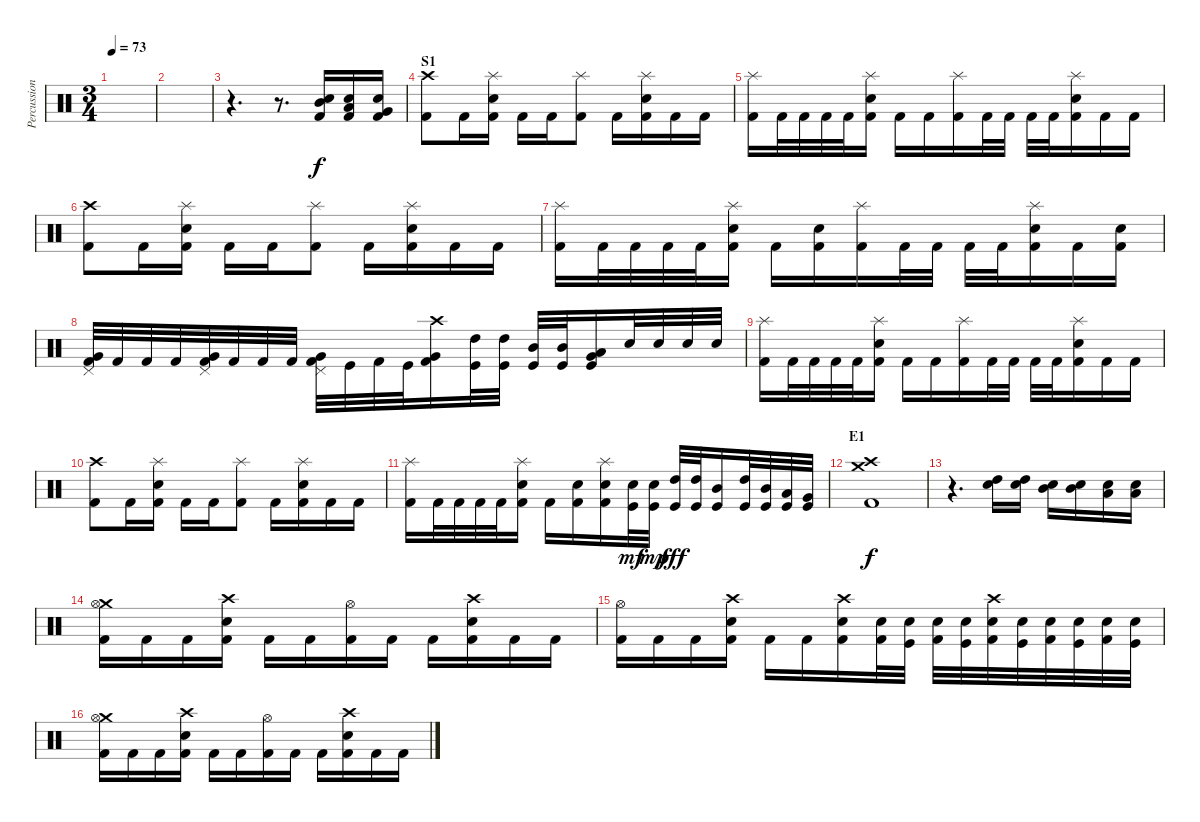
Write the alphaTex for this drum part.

\track ("Percussion" "Percussion") {instrument percussion}
\staff {score}
\articulation defaults
\ts (3 4)
\tempo 73
\clef neutral
\ks c
|
|
r.4{d} r.8{d} ("Electric Snare (hit)" "Mid Tom (hit)" "Kick (hit) 2").16 ("Electric Snare (hit)" "Low Tom (hit)" "Kick (hit) 2").16 ("Electric Snare (hit)" "Very Low Tom (hit)" "Kick (hit) 2").16 |
\section ("" "S1")
("Crash high (hit)" "Kick (hit) 2").8 "Kick (hit) 2".16 ("Splash (hit)" "Electric Snare (hit)" "Kick (hit) 2").16 "Kick (hit) 2".16 "Kick (hit) 2".16 ("Splash (hit)" "Kick (hit) 2").8 "Kick (hit) 2".16 ("Splash (hit)" "Electric Snare (hit)" "Kick (hit) 2").16 "Kick (hit) 2".16 "Kick (hit) 2".16 |
("Splash (hit)" "Kick (hit) 2").16 "Kick (hit) 2".32 "Kick (hit) 2".32 "Kick (hit) 2".32 "Kick (hit) 2".32 ("Splash (hit)" "Electric Snare (hit)" "Kick (hit) 2").16 "Kick (hit) 2".16 "Kick (hit) 2".16 ("Splash (hit)" "Kick (hit) 2").16 "Kick (hit) 2".32 "Kick (hit) 2".32 "Kick (hit) 2".32 "Kick (hit) 2".32 ("Splash (hit)" "Electric Snare (hit)" "Kick (hit) 2").16 "Kick (hit) 2".16 "Kick (hit) 2".16 |
("Crash high (hit)" "Kick (hit) 2").8 "Kick (hit) 2".16 ("Splash (hit)" "Electric Snare (hit)" "Kick (hit) 2").16 "Kick (hit) 2".16 "Kick (hit) 2".16 ("Splash (hit)" "Kick (hit) 2").8 "Kick (hit) 2".16 ("Splash (hit)" "Electric Snare (hit)" "Kick (hit) 2").16 "Kick (hit) 2".16 "Kick (hit) 2".16 |
("Splash (hit)" "Kick (hit) 2").16 "Kick (hit) 2".32 "Kick (hit) 2".32 "Kick (hit) 2".32 "Kick (hit) 2".32 ("Splash (hit)" "Electric Snare (hit)" "Kick (hit) 2").16 "Kick (hit) 2".16 ("Electric Snare (hit)" "Kick (hit) 2").16 ("Splash (hit)" "Kick (hit) 2").16 "Kick (hit) 2".32 "Kick (hit) 2".32 "Kick (hit) 2".32 "Kick (hit) 2".32 ("Splash (hit)" "Electric Snare (hit)" "Kick (hit) 2").16 "Kick (hit) 2".16 ("Electric Snare (hit)" "Kick (hit) 2").16 |
("Pedal Hi-Hat (hit)" "Very Low Tom (hit)" "Kick (hit) 2").32 "Kick (hit) 2".32 "Kick (hit) 2".32 "Kick (hit) 2".32 ("Pedal Hi-Hat (hit)" "Very Low Tom (hit)" "Kick (hit) 2").32 "Kick (hit) 2".32 "Kick (hit) 2".32 "Kick (hit) 2".32 ("Pedal Hi-Hat (hit)" "Very Low Tom (hit)" "Kick (hit) 2").32 "Kick (hit)".32 "Kick (hit) 2".32 "Kick (hit)".32 ("Crash high (hit)" "Very Low Tom (hit)" "Kick (hit) 2").16 ("High Tom (hit)" "Kick (hit)").32 ("High Tom (hit)" "Kick (hit)").32 ("Mid Tom (hit)" "Kick (hit)").32 ("Mid Tom (hit)" "Kick (hit)").32 ("Very Low Tom (hit)" "Low Tom (hit)" "Kick (hit)").16 "Electric Snare (hit)".32 "Electric Snare (hit)".32 "Electric Snare (hit)".32 "Electric Snare (hit)".32 |
("Splash (hit)" "Kick (hit) 2").16 "Kick (hit) 2".32 "Kick (hit) 2".32 "Kick (hit) 2".32 "Kick (hit) 2".32 ("Splash (hit)" "Electric Snare (hit)" "Kick (hit) 2").16 "Kick (hit) 2".16 "Kick (hit) 2".16 ("Splash (hit)" "Kick (hit) 2").16 "Kick (hit) 2".32 "Kick (hit) 2".32 "Kick (hit) 2".32 "Kick (hit) 2".32 ("Splash (hit)" "Electric Snare (hit)" "Kick (hit) 2").16 "Kick (hit) 2".16 "Kick (hit) 2".16 |
("Crash high (hit)" "Kick (hit) 2").8 "Kick (hit) 2".16 ("Splash (hit)" "Electric Snare (hit)" "Kick (hit) 2").16 "Kick (hit) 2".16 "Kick (hit) 2".16 ("Splash (hit)" "Kick (hit) 2").8 "Kick (hit) 2".16 ("Splash (hit)" "Electric Snare (hit)" "Kick (hit) 2").16 "Kick (hit) 2".16 "Kick (hit) 2".16 |
("Splash (hit)" "Kick (hit) 2").16 "Kick (hit) 2".32 "Kick (hit) 2".32 "Kick (hit) 2".32 "Kick (hit) 2".32 ("Splash (hit)" "Electric Snare (hit)" "Kick (hit) 2").16 "Kick (hit) 2".16 ("Electric Snare (hit)" "Kick (hit) 2").16 ("Splash (hit)" "Electric Snare (hit)" "Kick (hit) 2").16 ("Electric Snare (hit)" "Kick (hit)").32{dy mf} ("Electric Snare (hit)" "Kick (hit)").32{dy mp} ("High Tom (hit)" "Kick (hit)").32{dy fff} ("High Tom (hit)" "Kick (hit)").32 ("Mid Tom (hit)" "Kick (hit)").16 ("High Tom (hit)" "Kick (hit)").32 ("Mid Tom (hit)" "Kick (hit)").32 ("Low Tom (hit)" "Kick (hit)").32 ("Very Low Tom (hit)" "Kick (hit)").32 |
\section ("" "E1")
("Crash medium (hit)" "Crash high (hit)" "Kick (hit) 2").1{dy f} |
r.4{d} ("High Tom (hit)" "Electric Snare (hit)").16 ("High Tom (hit)" "Electric Snare (hit)").16 ("Mid Tom (hit)" "Electric Snare (hit)").16 ("Mid Tom (hit)" "Electric Snare (hit)").16 ("Low Tom (hit)" "Electric Snare (hit)").16 ("Low Tom (hit)" "Electric Snare (hit)").16 |
\section ("" "")
("Crash medium (hit)" "Hi-Hat (open)" "Kick (hit) 2").16 "Kick (hit) 2".16 "Kick (hit) 2".16 ("Crash high (hit)" "Electric Snare (hit)" "Kick (hit) 2").16 "Kick (hit) 2".16 "Kick (hit) 2".16 ("Hi-Hat (open)" "Kick (hit) 2").16 "Kick (hit) 2".16 "Kick (hit) 2".16 ("Crash high (hit)" "Electric Snare (hit)" "Kick (hit) 2").16 "Kick (hit) 2".16 "Kick (hit) 2".16 |
("Hi-Hat (open)" "Kick (hit) 2").16 "Kick (hit) 2".16 "Kick (hit) 2".16 ("Crash high (hit)" "Electric Snare (hit)" "Kick (hit) 2").16 "Kick (hit) 2".16 "Kick (hit) 2".16 ("Crash high (hit)" "Electric Snare (hit)" "Kick (hit) 2").16 ("Electric Snare (hit)" "Kick (hit) 2").32 ("Electric Snare (hit)" "Kick (hit)").32 ("Electric Snare (hit)" "Kick (hit) 2").32 ("Electric Snare (hit)" "Kick (hit)").32 ("Crash high (hit)" "Electric Snare (hit)" "Kick (hit) 2").32 ("Electric Snare (hit)" "Kick (hit)").32 ("Electric Snare (hit)" "Kick (hit) 2").32 ("Electric Snare (hit)" "Kick (hit)").32 ("Electric Snare (hit)" "Kick (hit) 2").32 ("Electric Snare (hit)" "Kick (hit)").32 |
("Crash medium (hit)" "Hi-Hat (open)" "Kick (hit) 2").16 "Kick (hit) 2".16 "Kick (hit) 2".16 ("Crash high (hit)" "Electric Snare (hit)" "Kick (hit) 2").16 "Kick (hit) 2".16 "Kick (hit) 2".16 ("Hi-Hat (open)" "Kick (hit) 2").16 "Kick (hit) 2".16 "Kick (hit) 2".16 ("Crash high (hit)" "Electric Snare (hit)" "Kick (hit) 2").16 "Kick (hit) 2".16 "Kick (hit) 2".16
